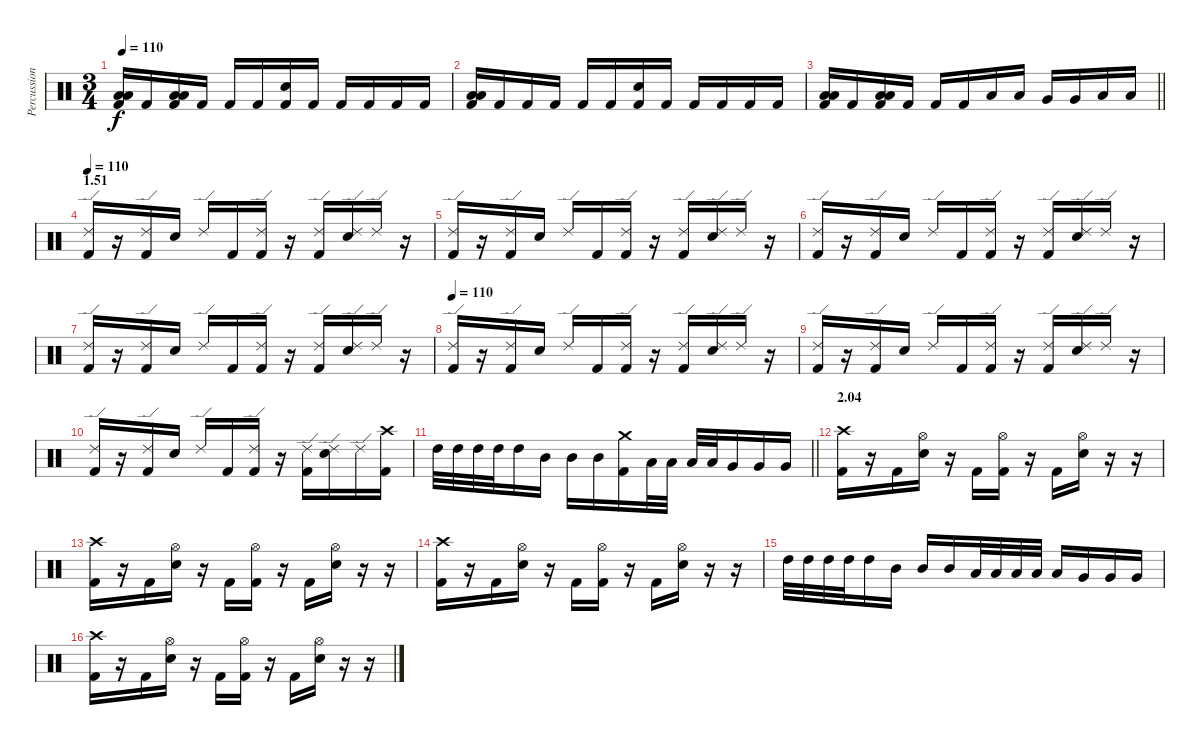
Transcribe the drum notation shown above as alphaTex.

\track ("Percussion" "Percussion") {instrument percussion}
\staff {score}
\articulation defaults
\ts (3 4)
\tempo 110
\clef neutral
\ks c
("Low Tom (hit)" "Low Floor Tom (hit)" "Kick (hit) 2").16{dy f} "Kick (hit) 2".16 ("Low Tom (hit)" "Low Floor Tom (hit)" "Kick (hit) 2").16 "Kick (hit) 2".16 "Kick (hit) 2".16 "Kick (hit) 2".16 ("Snare (hit) 2" "Kick (hit) 2").16 "Kick (hit) 2".16 "Kick (hit) 2".16 "Kick (hit) 2".16 "Kick (hit) 2".16 "Kick (hit) 2".16 |
("Low Tom (hit)" "Low Floor Tom (hit)" "Kick (hit) 2").16 "Kick (hit) 2".16 "Kick (hit) 2".16 "Kick (hit) 2".16 "Kick (hit) 2".16 "Kick (hit) 2".16 ("Snare (hit) 2" "Kick (hit) 2").16 "Kick (hit) 2".16 "Kick (hit) 2".16 "Kick (hit) 2".16 "Kick (hit) 2".16 "Kick (hit) 2".16 |
\barLineRight lightlight
("Low Tom (hit)" "Low Floor Tom (hit)" "Kick (hit) 2").16 "Kick (hit) 2".16 ("Low Tom (hit)" "Low Floor Tom (hit)" "Kick (hit) 2").16 "Kick (hit) 2".16 "Kick (hit) 2".16 "Kick (hit) 2".16 "Low Tom (hit)".16 "Low Tom (hit)".16 "Very Low Tom (hit)".16 "Very Low Tom (hit)".16 "Low Floor Tom (hit)".16 "Low Floor Tom (hit)".16 |
\section ("" "1.51")
\tempo 110
("Ride (edge) 2" "Kick (hit) 2").16 r.16 ("Ride (edge) 2" "Kick (hit) 2").16 "Snare (hit) 2".16 "Ride (edge) 2".16 "Kick (hit) 2".16 ("Ride (edge) 2" "Kick (hit) 2").16 r.16 ("Ride (edge) 2" "Kick (hit) 2").16 ("Ride (edge) 2" "Snare (hit) 2").16 "Ride (edge) 2".16 r.16 |
("Ride (edge) 2" "Kick (hit) 2").16 r.16 ("Ride (edge) 2" "Kick (hit) 2").16 "Snare (hit) 2".16 "Ride (edge) 2".16 "Kick (hit) 2".16 ("Ride (edge) 2" "Kick (hit) 2").16 r.16 ("Ride (edge) 2" "Kick (hit) 2").16 ("Ride (edge) 2" "Snare (hit) 2").16 "Ride (edge) 2".16 r.16 |
("Ride (edge) 2" "Kick (hit) 2").16 r.16 ("Ride (edge) 2" "Kick (hit) 2").16 "Snare (hit) 2".16 "Ride (edge) 2".16 "Kick (hit) 2".16 ("Ride (edge) 2" "Kick (hit) 2").16 r.16 ("Ride (edge) 2" "Kick (hit) 2").16 ("Ride (edge) 2" "Snare (hit) 2").16 "Ride (edge) 2".16 r.16 |
("Ride (edge) 2" "Kick (hit) 2").16 r.16 ("Ride (edge) 2" "Kick (hit) 2").16 "Snare (hit) 2".16 "Ride (edge) 2".16 "Kick (hit) 2".16 ("Ride (edge) 2" "Kick (hit) 2").16 r.16 ("Ride (edge) 2" "Kick (hit) 2").16 ("Ride (edge) 2" "Snare (hit) 2").16 "Ride (edge) 2".16 r.16 |
\tempo 110
("Ride (edge) 2" "Kick (hit) 2").16 r.16 ("Ride (edge) 2" "Kick (hit) 2").16 "Snare (hit) 2".16 "Ride (edge) 2".16 "Kick (hit) 2".16 ("Ride (edge) 2" "Kick (hit) 2").16 r.16 ("Ride (edge) 2" "Kick (hit) 2").16 ("Ride (edge) 2" "Snare (hit) 2").16 "Ride (edge) 2".16 r.16 |
("Ride (edge) 2" "Kick (hit) 2").16 r.16 ("Ride (edge) 2" "Kick (hit) 2").16 "Snare (hit) 2".16 "Ride (edge) 2".16 "Kick (hit) 2".16 ("Ride (edge) 2" "Kick (hit) 2").16 r.16 ("Ride (edge) 2" "Kick (hit) 2").16 ("Ride (edge) 2" "Snare (hit) 2").16 "Ride (edge) 2".16 r.16 |
("Ride (edge) 2" "Kick (hit) 2").16 r.16 ("Ride (edge) 2" "Kick (hit) 2").16 "Snare (hit) 2".16 "Ride (edge) 2".16 "Kick (hit) 2".16 ("Ride (edge) 2" "Kick (hit) 2").16 r.16 ("Ride (edge) 2" "Kick (hit) 2").16 ("Ride (edge) 2" "Snare (hit) 2").16 "Ride (edge) 2".16 ("Crash high (hit)" "Kick (hit) 2").16 |
\barLineRight lightlight "High Tom (hit)".32 "High Tom (hit)".32 "High Tom (hit)".32 "High Tom (hit)".32 "High Tom (hit)".16 "Mid Tom (hit)".16 "Mid Tom (hit)".16 "Mid Tom (hit)".16
("Crash medium (hit)" "Kick (hit) 2").16 "Low Tom (hit)".32 "Low Tom (hit)".32 "Low Tom (hit)".32 "Low Tom (hit)".32 "Very Low Tom (hit)".16 "Very Low Tom (hit)".16 "Very Low Tom (hit)".16 |
\section ("" "2.04")
("Crash high (hit)" "Kick (hit) 2").16 r.16 "Kick (hit) 2".16 ("Hi-Hat (open)" "Snare (hit) 2").16 r.16 "Kick (hit) 2".16 ("Hi-Hat (open)" "Kick (hit) 2").16 r.16 "Kick (hit) 2".16 ("Hi-Hat (open)" "Snare (hit) 2").16 r.16 r.16 |
("Crash high (hit)" "Kick (hit) 2").16 r.16 "Kick (hit) 2".16 ("Hi-Hat (open)" "Snare (hit) 2").16 r.16 "Kick (hit) 2".16 ("Hi-Hat (open)" "Kick (hit) 2").16 r.16 "Kick (hit) 2".16 ("Hi-Hat (open)" "Snare (hit) 2").16 r.16 r.16 |
("Crash high (hit)" "Kick (hit) 2").16 r.16 "Kick (hit) 2".16 ("Hi-Hat (open)" "Snare (hit) 2").16 r.16 "Kick (hit) 2".16 ("Hi-Hat (open)" "Kick (hit) 2").16 r.16 "Kick (hit) 2".16 ("Hi-Hat (open)" "Snare (hit) 2").16 r.16 r.16 |
"High Tom (hit)".32 "High Tom (hit)".32 "High Tom (hit)".32 "High Tom (hit)".32 "High Tom (hit)".16 "Mid Tom (hit)".16 "Mid Tom (hit)".16 "Mid Tom (hit)".16 "Low Tom (hit)".32 "Low Tom (hit)".32 "Low Tom (hit)".32 "Low Tom (hit)".32 "Low Tom (hit)".16 "Very Low Tom (hit)".16 "Very Low Tom (hit)".16 "Very Low Tom (hit)".16 |
("Crash high (hit)" "Kick (hit) 2").16 r.16 "Kick (hit) 2".16 ("Hi-Hat (open)" "Snare (hit) 2").16 r.16 "Kick (hit) 2".16 ("Hi-Hat (open)" "Kick (hit) 2").16 r.16 "Kick (hit) 2".16 ("Hi-Hat (open)" "Snare (hit) 2").16 r.16 r.16
